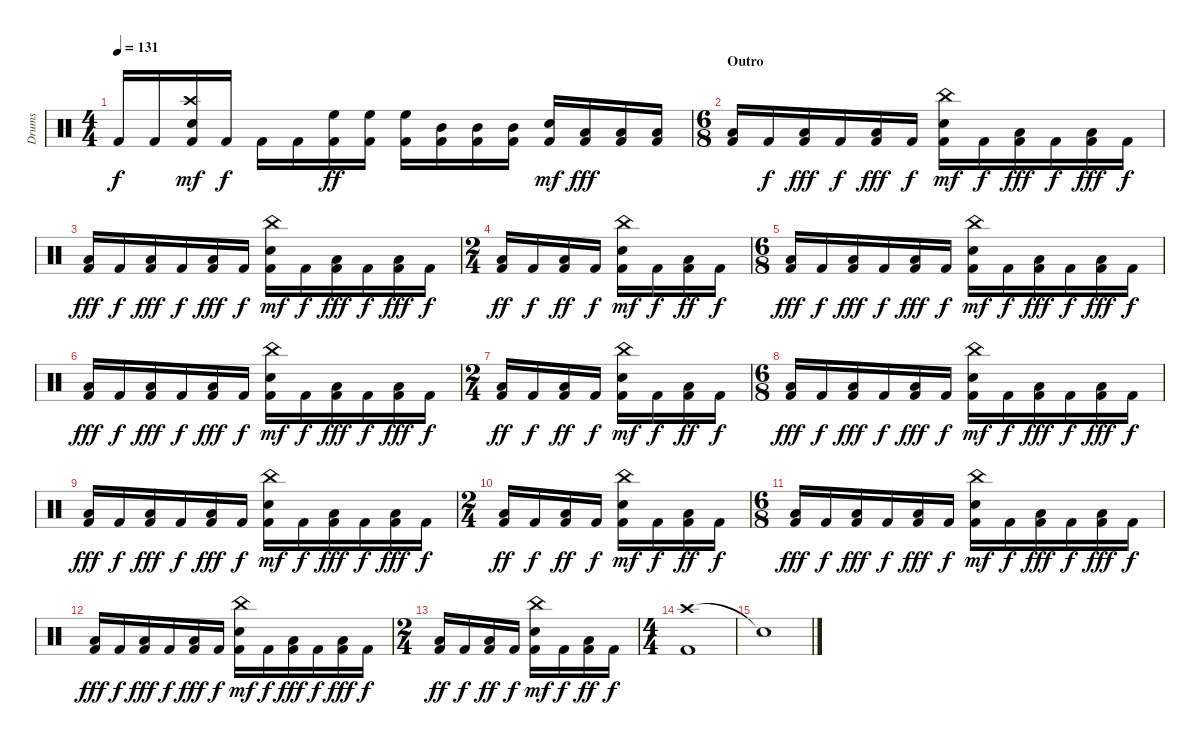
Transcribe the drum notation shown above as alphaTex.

\track ("Drums" "Drums") {instrument percussion}
\staff {score}
\articulation defaults
\ts (4 4)
\tempo 131
\clef neutral
\ks c "Kick (hit) 2".16{dy f} "Kick (hit) 2".16
("Crash high (hit)" "Snare (hit) 2" "Kick (hit) 2").16{dy mf} "Kick (hit) 2".16{dy f} "Kick (hit) 2".16 "Kick (hit) 2".16 ("High Floor Tom (hit)" "Kick (hit) 2").16{dy ff} ("High Floor Tom (hit)" "Kick (hit) 2").16 ("High Floor Tom (hit)" "Kick (hit) 2").16 ("Mid Tom (hit)" "Kick (hit) 2").16 ("Mid Tom (hit)" "Kick (hit) 2").16 ("Mid Tom (hit)" "Kick (hit) 2").16 ("Snare (hit) 2" "Kick (hit) 2").16{dy mf} ("Low Tom (hit)" "Kick (hit) 2").16{dy fff} ("Low Tom (hit)" "Kick (hit) 2").16 ("Low Tom (hit)" "Kick (hit) 2").16 |
\ts (6 8)
\section ("" "Outro")
("Low Tom (hit)" "Kick (hit) 2").16 "Kick (hit) 2".16{dy f} ("Low Tom (hit)" "Kick (hit) 2").16{dy fff} "Kick (hit) 2".16{dy f} ("Low Tom (hit)" "Kick (hit) 2").16{dy fff} "Kick (hit) 2".16{dy f} ("China (hit)" "Snare (hit) 2" "Kick (hit) 2").16{dy mf} "Kick (hit) 2".16{dy f} ("Low Tom (hit)" "Kick (hit) 2").16{dy fff} "Kick (hit) 2".16{dy f} ("Low Tom (hit)" "Kick (hit) 2").16{dy fff} "Kick (hit) 2".16{dy f} |
("Low Tom (hit)" "Kick (hit) 2").16{dy fff} "Kick (hit) 2".16{dy f} ("Low Tom (hit)" "Kick (hit) 2").16{dy fff} "Kick (hit) 2".16{dy f} ("Low Tom (hit)" "Kick (hit) 2").16{dy fff} "Kick (hit) 2".16{dy f} ("China (hit)" "Snare (hit) 2" "Kick (hit) 2").16{dy mf} "Kick (hit) 2".16{dy f} ("Low Tom (hit)" "Kick (hit) 2").16{dy fff} "Kick (hit) 2".16{dy f} ("Low Tom (hit)" "Kick (hit) 2").16{dy fff} "Kick (hit) 2".16{dy f} |
\ts (2 4)
("Low Tom (hit)" "Kick (hit) 2").16{dy ff} "Kick (hit) 2".16{dy f} ("Low Tom (hit)" "Kick (hit) 2").16{dy ff} "Kick (hit) 2".16{dy f} ("China (hit)" "Snare (hit) 2" "Kick (hit) 2").16{dy mf} "Kick (hit) 2".16{dy f} ("Low Tom (hit)" "Kick (hit) 2").16{dy ff} "Kick (hit) 2".16{dy f} |
\ts (6 8)
("Low Tom (hit)" "Kick (hit) 2").16{dy fff} "Kick (hit) 2".16{dy f} ("Low Tom (hit)" "Kick (hit) 2").16{dy fff} "Kick (hit) 2".16{dy f} ("Low Tom (hit)" "Kick (hit) 2").16{dy fff} "Kick (hit) 2".16{dy f} ("China (hit)" "Snare (hit) 2" "Kick (hit) 2").16{dy mf} "Kick (hit) 2".16{dy f} ("Low Tom (hit)" "Kick (hit) 2").16{dy fff} "Kick (hit) 2".16{dy f} ("Low Tom (hit)" "Kick (hit) 2").16{dy fff} "Kick (hit) 2".16{dy f} |
("Low Tom (hit)" "Kick (hit) 2").16{dy fff} "Kick (hit) 2".16{dy f} ("Low Tom (hit)" "Kick (hit) 2").16{dy fff} "Kick (hit) 2".16{dy f} ("Low Tom (hit)" "Kick (hit) 2").16{dy fff} "Kick (hit) 2".16{dy f} ("China (hit)" "Snare (hit) 2" "Kick (hit) 2").16{dy mf} "Kick (hit) 2".16{dy f} ("Low Tom (hit)" "Kick (hit) 2").16{dy fff} "Kick (hit) 2".16{dy f} ("Low Tom (hit)" "Kick (hit) 2").16{dy fff} "Kick (hit) 2".16{dy f} |
\ts (2 4)
("Low Tom (hit)" "Kick (hit) 2").16{dy ff} "Kick (hit) 2".16{dy f} ("Low Tom (hit)" "Kick (hit) 2").16{dy ff} "Kick (hit) 2".16{dy f} ("China (hit)" "Snare (hit) 2" "Kick (hit) 2").16{dy mf} "Kick (hit) 2".16{dy f} ("Low Tom (hit)" "Kick (hit) 2").16{dy ff} "Kick (hit) 2".16{dy f} |
\ts (6 8)
("Low Tom (hit)" "Kick (hit) 2").16{dy fff} "Kick (hit) 2".16{dy f} ("Low Tom (hit)" "Kick (hit) 2").16{dy fff} "Kick (hit) 2".16{dy f} ("Low Tom (hit)" "Kick (hit) 2").16{dy fff} "Kick (hit) 2".16{dy f} ("China (hit)" "Snare (hit) 2" "Kick (hit) 2").16{dy mf} "Kick (hit) 2".16{dy f} ("Low Tom (hit)" "Kick (hit) 2").16{dy fff} "Kick (hit) 2".16{dy f} ("Low Tom (hit)" "Kick (hit) 2").16{dy fff} "Kick (hit) 2".16{dy f} |
("Low Tom (hit)" "Kick (hit) 2").16{dy fff} "Kick (hit) 2".16{dy f} ("Low Tom (hit)" "Kick (hit) 2").16{dy fff} "Kick (hit) 2".16{dy f} ("Low Tom (hit)" "Kick (hit) 2").16{dy fff} "Kick (hit) 2".16{dy f} ("China (hit)" "Snare (hit) 2" "Kick (hit) 2").16{dy mf} "Kick (hit) 2".16{dy f} ("Low Tom (hit)" "Kick (hit) 2").16{dy fff} "Kick (hit) 2".16{dy f} ("Low Tom (hit)" "Kick (hit) 2").16{dy fff} "Kick (hit) 2".16{dy f} |
\ts (2 4)
("Low Tom (hit)" "Kick (hit) 2").16{dy ff} "Kick (hit) 2".16{dy f} ("Low Tom (hit)" "Kick (hit) 2").16{dy ff} "Kick (hit) 2".16{dy f} ("China (hit)" "Snare (hit) 2" "Kick (hit) 2").16{dy mf} "Kick (hit) 2".16{dy f} ("Low Tom (hit)" "Kick (hit) 2").16{dy ff} "Kick (hit) 2".16{dy f} |
\ts (6 8)
("Low Tom (hit)" "Kick (hit) 2").16{dy fff} "Kick (hit) 2".16{dy f} ("Low Tom (hit)" "Kick (hit) 2").16{dy fff} "Kick (hit) 2".16{dy f} ("Low Tom (hit)" "Kick (hit) 2").16{dy fff} "Kick (hit) 2".16{dy f} ("China (hit)" "Snare (hit) 2" "Kick (hit) 2").16{dy mf} "Kick (hit) 2".16{dy f} ("Low Tom (hit)" "Kick (hit) 2").16{dy fff} "Kick (hit) 2".16{dy f} ("Low Tom (hit)" "Kick (hit) 2").16{dy fff} "Kick (hit) 2".16{dy f} |
("Low Tom (hit)" "Kick (hit) 2").16{dy fff} "Kick (hit) 2".16{dy f} ("Low Tom (hit)" "Kick (hit) 2").16{dy fff} "Kick (hit) 2".16{dy f} ("Low Tom (hit)" "Kick (hit) 2").16{dy fff} "Kick (hit) 2".16{dy f} ("China (hit)" "Snare (hit) 2" "Kick (hit) 2").16{dy mf} "Kick (hit) 2".16{dy f} ("Low Tom (hit)" "Kick (hit) 2").16{dy fff} "Kick (hit) 2".16{dy f} ("Low Tom (hit)" "Kick (hit) 2").16{dy fff} "Kick (hit) 2".16{dy f} |
\ts (2 4)
("Low Tom (hit)" "Kick (hit) 2").16{dy ff} "Kick (hit) 2".16{dy f} ("Low Tom (hit)" "Kick (hit) 2").16{dy ff} "Kick (hit) 2".16{dy f} ("China (hit)" "Snare (hit) 2" "Kick (hit) 2").16{dy mf} "Kick (hit) 2".16{dy f} ("Low Tom (hit)" "Kick (hit) 2").16{dy ff} "Kick (hit) 2".16{dy f} |
\ts (4 4)
("Crash high (hit)" "Kick (hit) 2").1 |
"Snare (hit)"{t}.1
